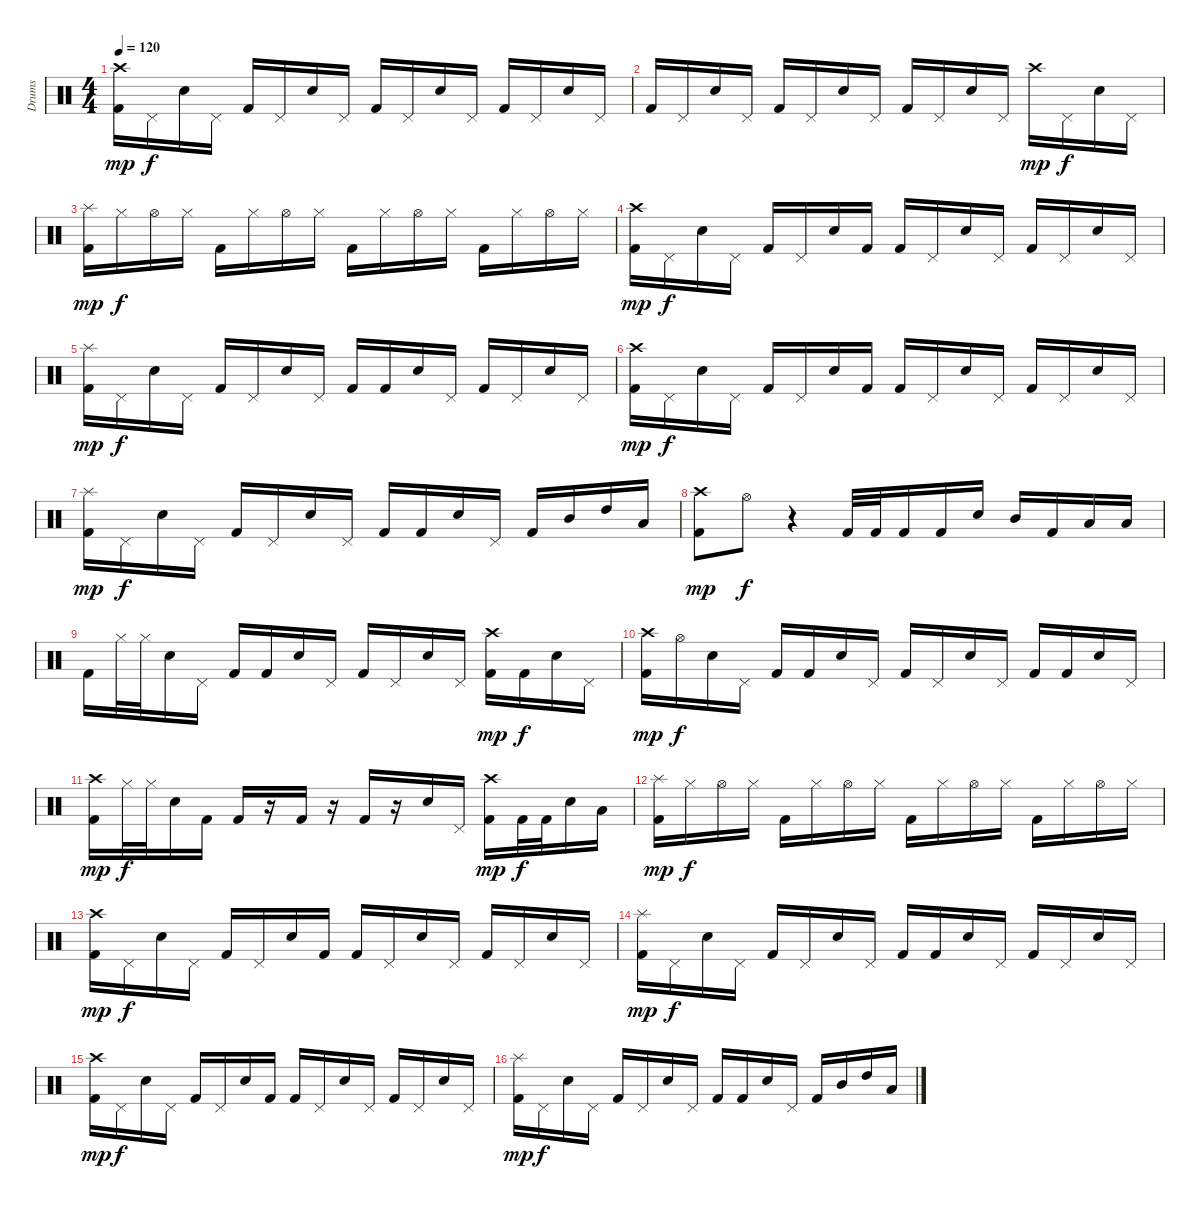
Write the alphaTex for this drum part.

\track ("Drums" "Drums") {instrument percussion}
\staff {score}
\articulation defaults
\ts (4 4)
\tempo 120
\clef neutral
\ks c
("Kick (hit) 2" "Crash high (hit)").16{dy mp} "Pedal Hi-Hat (hit)".16{dy f} "Electric Snare (hit)".16 "Pedal Hi-Hat (hit)".16 "Kick (hit) 2".16 "Pedal Hi-Hat (hit)".16 "Electric Snare (hit)".16 "Pedal Hi-Hat (hit)".16 "Kick (hit) 2".16 "Pedal Hi-Hat (hit)".16 "Electric Snare (hit)".16 "Pedal Hi-Hat (hit)".16 "Kick (hit) 2".16 "Pedal Hi-Hat (hit)".16 "Electric Snare (hit)".16 "Pedal Hi-Hat (hit)".16 |
"Kick (hit) 2".16 "Pedal Hi-Hat (hit)".16 "Electric Snare (hit)".16 "Pedal Hi-Hat (hit)".16 "Kick (hit) 2".16 "Pedal Hi-Hat (hit)".16 "Electric Snare (hit)".16 "Pedal Hi-Hat (hit)".16 "Kick (hit) 2".16 "Pedal Hi-Hat (hit)".16 "Electric Snare (hit)".16 "Pedal Hi-Hat (hit)".16 "Crash high (hit)".16{dy mp} "Pedal Hi-Hat (hit)".16{dy f} "Electric Snare (hit)".16 "Pedal Hi-Hat (hit)".16 |
("Kick (hit) 2" "Splash (hit)").16{dy mp} "Hi-Hat (closed)".16{dy f} "Hi-Hat (open)".16 "Hi-Hat (closed)".16 "Kick (hit) 2".16 "Hi-Hat (closed)".16 "Hi-Hat (open)".16 "Hi-Hat (closed)".16 "Kick (hit) 2".16 "Hi-Hat (closed)".16 "Hi-Hat (open)".16 "Hi-Hat (closed)".16 "Kick (hit) 2".16 "Hi-Hat (closed)".16 "Hi-Hat (open)".16 "Hi-Hat (closed)".16 |
("Kick (hit) 2" "Crash high (hit)").16{dy mp} "Pedal Hi-Hat (hit)".16{dy f} "Electric Snare (hit)".16 "Pedal Hi-Hat (hit)".16 "Kick (hit) 2".16 "Pedal Hi-Hat (hit)".16 "Electric Snare (hit)".16 "Kick (hit) 2".16 "Kick (hit) 2".16 "Pedal Hi-Hat (hit)".16 "Electric Snare (hit)".16 "Pedal Hi-Hat (hit)".16 "Kick (hit) 2".16 "Pedal Hi-Hat (hit)".16 "Electric Snare (hit)".16 "Pedal Hi-Hat (hit)".16 |
("Kick (hit) 2" "Splash (hit)").16{dy mp} "Pedal Hi-Hat (hit)".16{dy f} "Electric Snare (hit)".16 "Pedal Hi-Hat (hit)".16 "Kick (hit) 2".16 "Pedal Hi-Hat (hit)".16 "Electric Snare (hit)".16 "Pedal Hi-Hat (hit)".16 "Kick (hit) 2".16 "Kick (hit) 2".16 "Electric Snare (hit)".16 "Pedal Hi-Hat (hit)".16 "Kick (hit) 2".16 "Pedal Hi-Hat (hit)".16 "Electric Snare (hit)".16 "Pedal Hi-Hat (hit)".16 |
("Kick (hit) 2" "Crash high (hit)").16{dy mp} "Pedal Hi-Hat (hit)".16{dy f} "Electric Snare (hit)".16 "Pedal Hi-Hat (hit)".16 "Kick (hit) 2".16 "Pedal Hi-Hat (hit)".16 "Electric Snare (hit)".16 "Kick (hit) 2".16 "Kick (hit) 2".16 "Pedal Hi-Hat (hit)".16 "Electric Snare (hit)".16 "Pedal Hi-Hat (hit)".16 "Kick (hit) 2".16 "Pedal Hi-Hat (hit)".16 "Electric Snare (hit)".16 "Pedal Hi-Hat (hit)".16 |
("Kick (hit) 2" "Splash (hit)").16{dy mp} "Pedal Hi-Hat (hit)".16{dy f} "Electric Snare (hit)".16 "Pedal Hi-Hat (hit)".16 "Kick (hit) 2".16 "Pedal Hi-Hat (hit)".16 "Electric Snare (hit)".16 "Pedal Hi-Hat (hit)".16 "Kick (hit) 2".16 "Kick (hit) 2".16 "Electric Snare (hit)".16 "Pedal Hi-Hat (hit)".16 "Kick (hit) 2".16 "Mid Tom (hit)".16 "High Tom (hit)".16 "Low Tom (hit)".16 |
("Kick (hit) 2" "Crash high (hit)").8{dy mp} "Hi-Hat (open)".8{dy f} r.4 "Kick (hit) 2".32 "Kick (hit) 2".32 "Kick (hit) 2".16 "Kick (hit) 2".16 "Electric Snare (hit)".16 "Mid Tom (hit)".16 "Kick (hit) 2".16 "Low Tom (hit)".16 "Low Tom (hit)".16 |
"Kick (hit) 2".16 "Hi-Hat (closed)".32 "Hi-Hat (closed)".32 "Electric Snare (hit)".16 "Pedal Hi-Hat (hit)".16 "Kick (hit) 2".16 "Kick (hit) 2".16 "Electric Snare (hit)".16 "Pedal Hi-Hat (hit)".16 "Kick (hit) 2".16 "Pedal Hi-Hat (hit)".16 "Electric Snare (hit)".16 "Pedal Hi-Hat (hit)".16 ("Kick (hit) 2" "Crash high (hit)").16{dy mp} "Kick (hit) 2".16{dy f} "Electric Snare (hit)".16 "Pedal Hi-Hat (hit)".16 |
("Kick (hit) 2" "Crash high (hit)").16{dy mp} "Hi-Hat (open)".16{dy f} "Electric Snare (hit)".16 "Pedal Hi-Hat (hit)".16 "Kick (hit) 2".16 "Kick (hit) 2".16 "Electric Snare (hit)".16 "Pedal Hi-Hat (hit)".16 "Kick (hit) 2".16 "Pedal Hi-Hat (hit)".16 "Electric Snare (hit)".16 "Pedal Hi-Hat (hit)".16 "Kick (hit) 2".16 "Kick (hit) 2".16 "Electric Snare (hit)".16 "Pedal Hi-Hat (hit)".16 |
("Kick (hit) 2" "Crash high (hit)").16{dy mp} "Hi-Hat (closed)".32{dy f} "Hi-Hat (closed)".32 "Electric Snare (hit)".16 "Kick (hit) 2".16 "Kick (hit) 2".16 r.16 "Kick (hit) 2".16 r.16 "Kick (hit) 2".16 r.16 "Electric Snare (hit)".16 "Pedal Hi-Hat (hit)".16 ("Kick (hit) 2" "Crash high (hit)").16{dy mp} "Kick (hit) 2".32{dy f} "Kick (hit) 2".32 "Electric Snare (hit)".16 "Low Tom (hit)".16 |
("Kick (hit) 2" "Splash (hit)").16{dy mp} "Hi-Hat (closed)".16{dy f} "Hi-Hat (open)".16 "Hi-Hat (closed)".16 "Kick (hit) 2".16 "Hi-Hat (closed)".16 "Hi-Hat (open)".16 "Hi-Hat (closed)".16 "Kick (hit) 2".16 "Hi-Hat (closed)".16 "Hi-Hat (open)".16 "Hi-Hat (closed)".16 "Kick (hit) 2".16 "Hi-Hat (closed)".16 "Hi-Hat (open)".16 "Hi-Hat (closed)".16 |
("Kick (hit) 2" "Crash high (hit)").16{dy mp} "Pedal Hi-Hat (hit)".16{dy f} "Electric Snare (hit)".16 "Pedal Hi-Hat (hit)".16 "Kick (hit) 2".16 "Pedal Hi-Hat (hit)".16 "Electric Snare (hit)".16 "Kick (hit) 2".16 "Kick (hit) 2".16 "Pedal Hi-Hat (hit)".16 "Electric Snare (hit)".16 "Pedal Hi-Hat (hit)".16 "Kick (hit) 2".16 "Pedal Hi-Hat (hit)".16 "Electric Snare (hit)".16 "Pedal Hi-Hat (hit)".16 |
("Kick (hit) 2" "Splash (hit)").16{dy mp} "Pedal Hi-Hat (hit)".16{dy f} "Electric Snare (hit)".16 "Pedal Hi-Hat (hit)".16 "Kick (hit) 2".16 "Pedal Hi-Hat (hit)".16 "Electric Snare (hit)".16 "Pedal Hi-Hat (hit)".16 "Kick (hit) 2".16 "Kick (hit) 2".16 "Electric Snare (hit)".16 "Pedal Hi-Hat (hit)".16 "Kick (hit) 2".16 "Pedal Hi-Hat (hit)".16 "Electric Snare (hit)".16 "Pedal Hi-Hat (hit)".16 |
("Kick (hit) 2" "Crash high (hit)").16{dy mp} "Pedal Hi-Hat (hit)".16{dy f} "Electric Snare (hit)".16 "Pedal Hi-Hat (hit)".16 "Kick (hit) 2".16 "Pedal Hi-Hat (hit)".16 "Electric Snare (hit)".16 "Kick (hit) 2".16 "Kick (hit) 2".16 "Pedal Hi-Hat (hit)".16 "Electric Snare (hit)".16 "Pedal Hi-Hat (hit)".16 "Kick (hit) 2".16 "Pedal Hi-Hat (hit)".16 "Electric Snare (hit)".16 "Pedal Hi-Hat (hit)".16 |
("Kick (hit) 2" "Splash (hit)").16{dy mp} "Pedal Hi-Hat (hit)".16{dy f} "Electric Snare (hit)".16 "Pedal Hi-Hat (hit)".16 "Kick (hit) 2".16 "Pedal Hi-Hat (hit)".16 "Electric Snare (hit)".16 "Pedal Hi-Hat (hit)".16 "Kick (hit) 2".16 "Kick (hit) 2".16 "Electric Snare (hit)".16 "Pedal Hi-Hat (hit)".16 "Kick (hit) 2".16 "Mid Tom (hit)".16 "High Tom (hit)".16 "Low Tom (hit)".16
